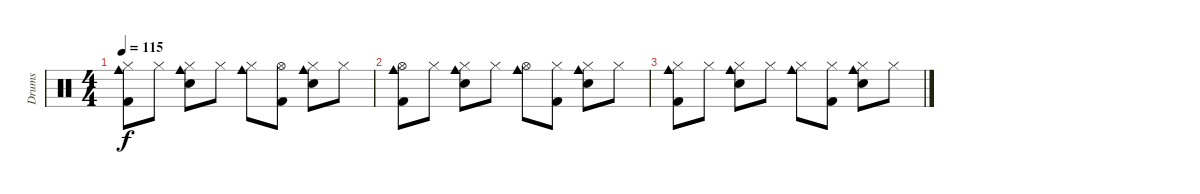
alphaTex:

\track ("Drums" "Drums") {instrument percussion}
\staff {score}
\articulation defaults
\ts (4 4)
\tempo 115
\clef neutral
\ks c
("Hi-Hat (closed)" "Cowbell medium (hit)" "Kick (hit) 2").8{dy f} "Hi-Hat (closed)".8 ("Hi-Hat (closed)" "Cowbell medium (hit)" "Snare (hit) 2").8 "Hi-Hat (closed)".8 ("Hi-Hat (closed)" "Cowbell medium (hit)").8 ("Hi-Hat (open)" "Kick (hit) 2").8 ("Hi-Hat (closed)" "Cowbell medium (hit)" "Snare (hit) 2").8 "Hi-Hat (closed)".8 |
("Hi-Hat (open)" "Cowbell medium (hit)" "Kick (hit) 2").8 "Hi-Hat (closed)".8 ("Hi-Hat (closed)" "Cowbell medium (hit)" "Snare (hit) 2").8 "Hi-Hat (closed)".8 ("Hi-Hat (open)" "Cowbell medium (hit)").8 ("Hi-Hat (closed)" "Kick (hit) 2").8 ("Hi-Hat (closed)" "Cowbell medium (hit)" "Snare (hit) 2").8 "Hi-Hat (closed)".8 |
("Hi-Hat (closed)" "Cowbell medium (hit)" "Kick (hit) 2").8 "Hi-Hat (closed)".8 ("Hi-Hat (closed)" "Cowbell medium (hit)" "Snare (hit) 2").8 "Hi-Hat (closed)".8 ("Hi-Hat (closed)" "Cowbell medium (hit)").8 ("Hi-Hat (closed)" "Kick (hit) 2").8 ("Hi-Hat (closed)" "Cowbell medium (hit)" "Snare (hit) 2").8 "Hi-Hat (closed)".8
